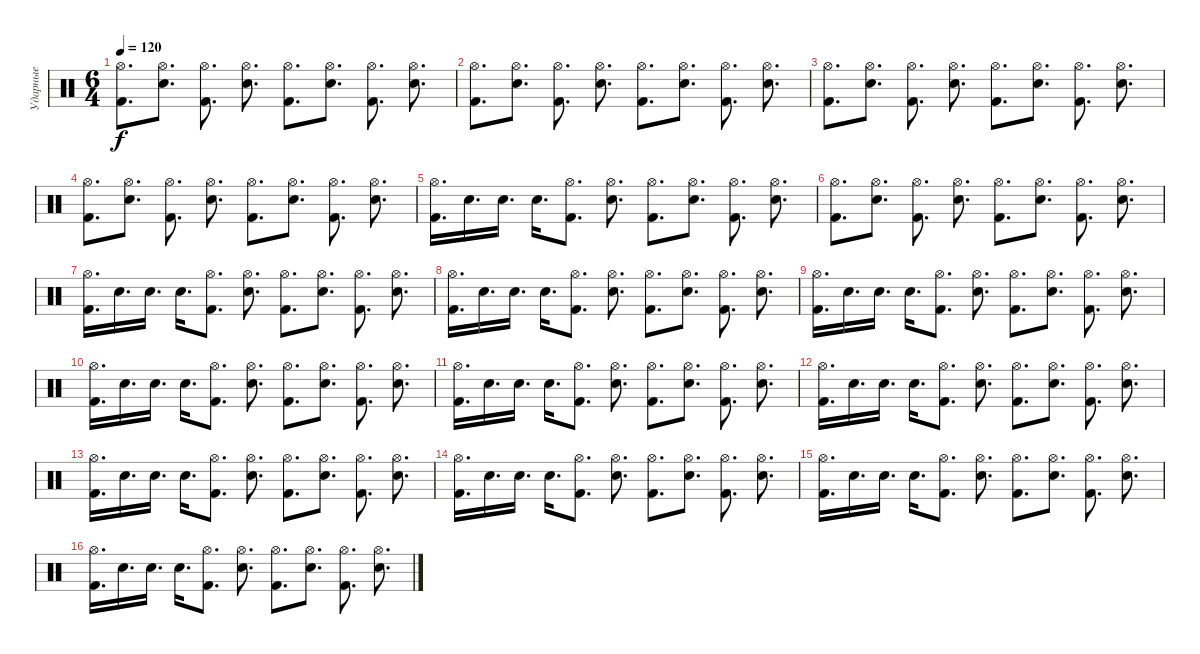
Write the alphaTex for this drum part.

\track ("Ударные" "Ударные") {instrument percussion}
\staff {score}
\articulation defaults
\ts (6 4)
\tempo 120
\clef neutral
\ks c
("Hi-Hat (open)" "Kick (hit) 2").8{d dy f} ("Electric Snare (hit)" "Hi-Hat (open)").8{d} ("Hi-Hat (open)" "Kick (hit) 2").8{d} ("Electric Snare (hit)" "Hi-Hat (open)").8{d} ("Hi-Hat (open)" "Kick (hit) 2").8{d} ("Electric Snare (hit)" "Hi-Hat (open)").8{d} ("Hi-Hat (open)" "Kick (hit) 2").8{d} ("Electric Snare (hit)" "Hi-Hat (open)").8{d} |
("Hi-Hat (open)" "Kick (hit) 2").8{d} ("Electric Snare (hit)" "Hi-Hat (open)").8{d} ("Hi-Hat (open)" "Kick (hit) 2").8{d} ("Electric Snare (hit)" "Hi-Hat (open)").8{d} ("Hi-Hat (open)" "Kick (hit) 2").8{d} ("Electric Snare (hit)" "Hi-Hat (open)").8{d} ("Hi-Hat (open)" "Kick (hit) 2").8{d} ("Electric Snare (hit)" "Hi-Hat (open)").8{d} |
("Hi-Hat (open)" "Kick (hit) 2").8{d} ("Electric Snare (hit)" "Hi-Hat (open)").8{d} ("Hi-Hat (open)" "Kick (hit) 2").8{d} ("Electric Snare (hit)" "Hi-Hat (open)").8{d} ("Hi-Hat (open)" "Kick (hit) 2").8{d} ("Electric Snare (hit)" "Hi-Hat (open)").8{d} ("Hi-Hat (open)" "Kick (hit) 2").8{d} ("Electric Snare (hit)" "Hi-Hat (open)").8{d} |
("Hi-Hat (open)" "Kick (hit) 2").8{d} ("Electric Snare (hit)" "Hi-Hat (open)").8{d} ("Hi-Hat (open)" "Kick (hit) 2").8{d} ("Electric Snare (hit)" "Hi-Hat (open)").8{d} ("Hi-Hat (open)" "Kick (hit) 2").8{d} ("Electric Snare (hit)" "Hi-Hat (open)").8{d} ("Hi-Hat (open)" "Kick (hit) 2").8{d} ("Electric Snare (hit)" "Hi-Hat (open)").8{d} |
("Hi-Hat (open)" "Kick (hit) 2").16{d} "Electric Snare (hit)".16{d} "Electric Snare (hit)".16{d} "Electric Snare (hit)".16{d} ("Hi-Hat (open)" "Kick (hit) 2").8{d} ("Electric Snare (hit)" "Hi-Hat (open)").8{d} ("Hi-Hat (open)" "Kick (hit) 2").8{d} ("Electric Snare (hit)" "Hi-Hat (open)").8{d} ("Hi-Hat (open)" "Kick (hit) 2").8{d} ("Electric Snare (hit)" "Hi-Hat (open)").8{d} |
("Hi-Hat (open)" "Kick (hit) 2").8{d} ("Electric Snare (hit)" "Hi-Hat (open)").8{d} ("Hi-Hat (open)" "Kick (hit) 2").8{d} ("Electric Snare (hit)" "Hi-Hat (open)").8{d} ("Hi-Hat (open)" "Kick (hit) 2").8{d} ("Electric Snare (hit)" "Hi-Hat (open)").8{d} ("Hi-Hat (open)" "Kick (hit) 2").8{d} ("Electric Snare (hit)" "Hi-Hat (open)").8{d} |
("Hi-Hat (open)" "Kick (hit) 2").16{d} "Electric Snare (hit)".16{d} "Electric Snare (hit)".16{d} "Electric Snare (hit)".16{d} ("Hi-Hat (open)" "Kick (hit) 2").8{d} ("Electric Snare (hit)" "Hi-Hat (open)").8{d} ("Hi-Hat (open)" "Kick (hit) 2").8{d} ("Electric Snare (hit)" "Hi-Hat (open)").8{d} ("Hi-Hat (open)" "Kick (hit) 2").8{d} ("Electric Snare (hit)" "Hi-Hat (open)").8{d} |
("Hi-Hat (open)" "Kick (hit) 2").16{d} "Electric Snare (hit)".16{d} "Electric Snare (hit)".16{d} "Electric Snare (hit)".16{d} ("Hi-Hat (open)" "Kick (hit) 2").8{d} ("Electric Snare (hit)" "Hi-Hat (open)").8{d} ("Hi-Hat (open)" "Kick (hit) 2").8{d} ("Electric Snare (hit)" "Hi-Hat (open)").8{d} ("Hi-Hat (open)" "Kick (hit) 2").8{d} ("Electric Snare (hit)" "Hi-Hat (open)").8{d} |
("Hi-Hat (open)" "Kick (hit) 2").16{d} "Electric Snare (hit)".16{d} "Electric Snare (hit)".16{d} "Electric Snare (hit)".16{d} ("Hi-Hat (open)" "Kick (hit) 2").8{d} ("Electric Snare (hit)" "Hi-Hat (open)").8{d} ("Hi-Hat (open)" "Kick (hit) 2").8{d} ("Electric Snare (hit)" "Hi-Hat (open)").8{d} ("Hi-Hat (open)" "Kick (hit) 2").8{d} ("Electric Snare (hit)" "Hi-Hat (open)").8{d} |
("Hi-Hat (open)" "Kick (hit) 2").16{d} "Electric Snare (hit)".16{d} "Electric Snare (hit)".16{d} "Electric Snare (hit)".16{d} ("Hi-Hat (open)" "Kick (hit) 2").8{d} ("Electric Snare (hit)" "Hi-Hat (open)").8{d} ("Hi-Hat (open)" "Kick (hit) 2").8{d} ("Electric Snare (hit)" "Hi-Hat (open)").8{d} ("Hi-Hat (open)" "Kick (hit) 2").8{d} ("Electric Snare (hit)" "Hi-Hat (open)").8{d} |
("Hi-Hat (open)" "Kick (hit) 2").16{d} "Electric Snare (hit)".16{d} "Electric Snare (hit)".16{d} "Electric Snare (hit)".16{d} ("Hi-Hat (open)" "Kick (hit) 2").8{d} ("Electric Snare (hit)" "Hi-Hat (open)").8{d} ("Hi-Hat (open)" "Kick (hit) 2").8{d} ("Electric Snare (hit)" "Hi-Hat (open)").8{d} ("Hi-Hat (open)" "Kick (hit) 2").8{d} ("Electric Snare (hit)" "Hi-Hat (open)").8{d} |
("Hi-Hat (open)" "Kick (hit) 2").16{d} "Electric Snare (hit)".16{d} "Electric Snare (hit)".16{d} "Electric Snare (hit)".16{d} ("Hi-Hat (open)" "Kick (hit) 2").8{d} ("Electric Snare (hit)" "Hi-Hat (open)").8{d} ("Hi-Hat (open)" "Kick (hit) 2").8{d} ("Electric Snare (hit)" "Hi-Hat (open)").8{d} ("Hi-Hat (open)" "Kick (hit) 2").8{d} ("Electric Snare (hit)" "Hi-Hat (open)").8{d} |
("Hi-Hat (open)" "Kick (hit) 2").16{d} "Electric Snare (hit)".16{d} "Electric Snare (hit)".16{d} "Electric Snare (hit)".16{d} ("Hi-Hat (open)" "Kick (hit) 2").8{d} ("Electric Snare (hit)" "Hi-Hat (open)").8{d} ("Hi-Hat (open)" "Kick (hit) 2").8{d} ("Electric Snare (hit)" "Hi-Hat (open)").8{d} ("Hi-Hat (open)" "Kick (hit) 2").8{d} ("Electric Snare (hit)" "Hi-Hat (open)").8{d} |
("Hi-Hat (open)" "Kick (hit) 2").16{d} "Electric Snare (hit)".16{d} "Electric Snare (hit)".16{d} "Electric Snare (hit)".16{d} ("Hi-Hat (open)" "Kick (hit) 2").8{d} ("Electric Snare (hit)" "Hi-Hat (open)").8{d} ("Hi-Hat (open)" "Kick (hit) 2").8{d} ("Electric Snare (hit)" "Hi-Hat (open)").8{d} ("Hi-Hat (open)" "Kick (hit) 2").8{d} ("Electric Snare (hit)" "Hi-Hat (open)").8{d} |
("Hi-Hat (open)" "Kick (hit) 2").16{d} "Electric Snare (hit)".16{d} "Electric Snare (hit)".16{d} "Electric Snare (hit)".16{d} ("Hi-Hat (open)" "Kick (hit) 2").8{d} ("Electric Snare (hit)" "Hi-Hat (open)").8{d} ("Hi-Hat (open)" "Kick (hit) 2").8{d} ("Electric Snare (hit)" "Hi-Hat (open)").8{d} ("Hi-Hat (open)" "Kick (hit) 2").8{d} ("Electric Snare (hit)" "Hi-Hat (open)").8{d} |
("Hi-Hat (open)" "Kick (hit) 2").16{d} "Electric Snare (hit)".16{d} "Electric Snare (hit)".16{d} "Electric Snare (hit)".16{d} ("Hi-Hat (open)" "Kick (hit) 2").8{d} ("Electric Snare (hit)" "Hi-Hat (open)").8{d} ("Hi-Hat (open)" "Kick (hit) 2").8{d} ("Electric Snare (hit)" "Hi-Hat (open)").8{d} ("Hi-Hat (open)" "Kick (hit) 2").8{d} ("Electric Snare (hit)" "Hi-Hat (open)").8{d}
